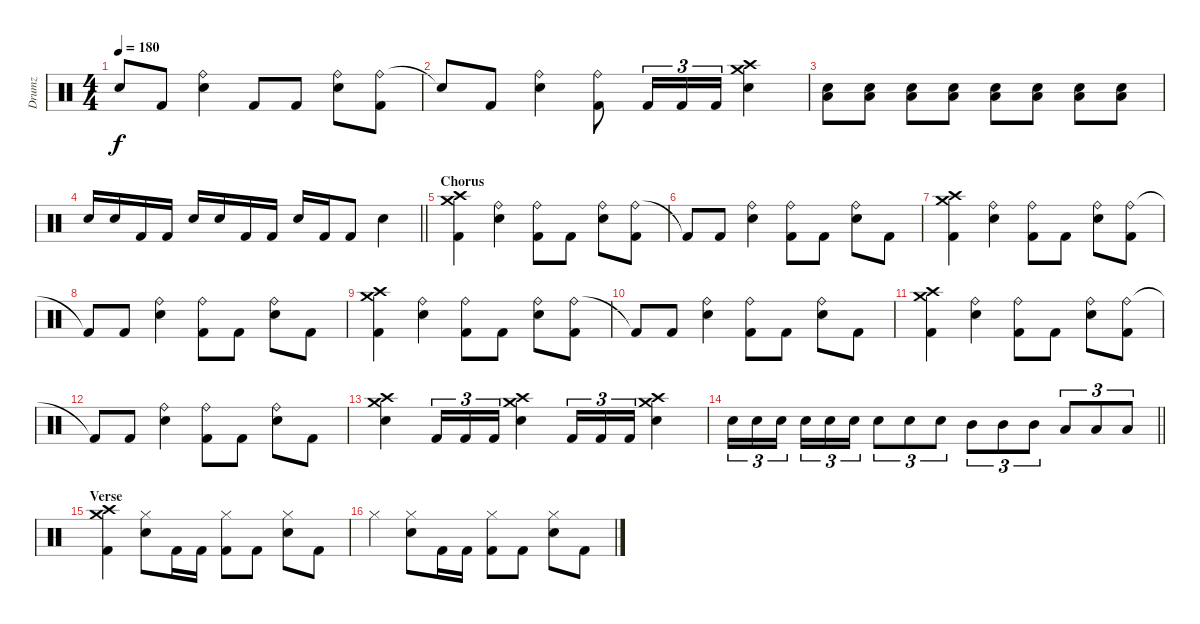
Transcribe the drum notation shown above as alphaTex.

\track ("Drumz" "Drumz") {instrument percussion}
\staff {score}
\articulation defaults
\ts (4 4)
\tempo 180
\clef neutral
\ks c "Snare (hit)"{t}.8{dy f} "Kick (hit) 2".8
("Ride (bell)" "Electric Snare (hit)").4 "Kick (hit) 2".8 "Kick (hit) 2".8 ("Ride (bell)" "Electric Snare (hit)").8 ("Ride (bell)" "Kick (hit) 2").8 |
"Snare (hit)"{t}.8 "Kick (hit) 2".8 ("Ride (bell)" "Electric Snare (hit)").4 ("Ride (bell)" "Kick (hit) 2").8 "Kick (hit) 2".16{tu (3 2)} "Kick (hit) 2".16{tu (3 2)} "Kick (hit) 2".16{tu (3 2)} ("Crash medium (hit)" "Crash high (hit)" "Electric Snare (hit)").4 |
("Low Tom (hit)" "Electric Snare (hit)").8 ("Low Tom (hit)" "Electric Snare (hit)").8 ("Low Tom (hit)" "Electric Snare (hit)").8 ("Low Tom (hit)" "Electric Snare (hit)").8 ("Low Tom (hit)" "Electric Snare (hit)").8 ("Low Tom (hit)" "Electric Snare (hit)").8 ("Low Tom (hit)" "Electric Snare (hit)").8 ("Low Tom (hit)" "Electric Snare (hit)").8 |
\barLineRight lightlight "Electric Snare (hit)".16 "Electric Snare (hit)".16 "Kick (hit) 2".16 "Kick (hit) 2".16 "Electric Snare (hit)".16 "Electric Snare (hit)".16 "Kick (hit) 2".16 "Kick (hit) 2".16 "Electric Snare (hit)".16 "Kick (hit) 2".16 "Kick (hit) 2".8 "Electric Snare (hit)".4
|
\section ("" "Chorus")
("Crash high (hit)" "Crash medium (hit)" "Kick (hit) 2").4 ("Ride (bell)" "Electric Snare (hit)").4 ("Ride (bell)" "Kick (hit) 2").8 "Kick (hit) 2".8 ("Ride (bell)" "Electric Snare (hit)").8 ("Ride (bell)" "Kick (hit) 2").8 |
"Kick (hit) 2"{t}.8 "Kick (hit) 2".8 ("Ride (bell)" "Electric Snare (hit)").4 ("Ride (bell)" "Kick (hit) 2").8 "Kick (hit) 2".8 ("Ride (bell)" "Electric Snare (hit)").8 "Kick (hit) 2".8 |
("Crash high (hit)" "Crash medium (hit)" "Kick (hit) 2").4 ("Ride (bell)" "Electric Snare (hit)").4 ("Ride (bell)" "Kick (hit) 2").8 "Kick (hit) 2".8 ("Ride (bell)" "Electric Snare (hit)").8 ("Ride (bell)" "Kick (hit) 2").8 |
"Kick (hit) 2"{t}.8 "Kick (hit) 2".8 ("Ride (bell)" "Electric Snare (hit)").4 ("Ride (bell)" "Kick (hit) 2").8 "Kick (hit) 2".8 ("Ride (bell)" "Electric Snare (hit)").8 "Kick (hit) 2".8 |
("Crash high (hit)" "Crash medium (hit)" "Kick (hit) 2").4 ("Ride (bell)" "Electric Snare (hit)").4 ("Ride (bell)" "Kick (hit) 2").8 "Kick (hit) 2".8 ("Ride (bell)" "Electric Snare (hit)").8 ("Ride (bell)" "Kick (hit) 2").8 |
"Kick (hit) 2"{t}.8 "Kick (hit) 2".8 ("Ride (bell)" "Electric Snare (hit)").4 ("Ride (bell)" "Kick (hit) 2").8 "Kick (hit) 2".8 ("Ride (bell)" "Electric Snare (hit)").8 "Kick (hit) 2".8 |
("Crash high (hit)" "Crash medium (hit)" "Kick (hit) 2").4 ("Ride (bell)" "Electric Snare (hit)").4 ("Ride (bell)" "Kick (hit) 2").8 "Kick (hit) 2".8 ("Ride (bell)" "Electric Snare (hit)").8 ("Ride (bell)" "Kick (hit) 2").8 |
"Kick (hit) 2"{t}.8 "Kick (hit) 2".8 ("Ride (bell)" "Electric Snare (hit)").4 ("Ride (bell)" "Kick (hit) 2").8 "Kick (hit) 2".8 ("Ride (bell)" "Electric Snare (hit)").8 "Kick (hit) 2".8 |
("Crash medium (hit)" "Crash high (hit)" "Electric Snare (hit)").4 "Kick (hit) 2".16{tu (3 2)} "Kick (hit) 2".16{tu (3 2)} "Kick (hit) 2".16{tu (3 2)} ("Crash medium (hit)" "Crash high (hit)" "Electric Snare (hit)").4 "Kick (hit) 2".16{tu (3 2)} "Kick (hit) 2".16{tu (3 2)} "Kick (hit) 2".16{tu (3 2)} ("Crash medium (hit)" "Crash high (hit)" "Electric Snare (hit)").4 |
\barLineRight lightlight "Electric Snare (hit)".16{tu (3 2)} "Electric Snare (hit)".16{tu (3 2)} "Electric Snare (hit)".16{tu (3 2) beam splitsecondary} "Electric Snare (hit)".16{tu (3 2)} "Electric Snare (hit)".16{tu (3 2)} "Electric Snare (hit)".16{tu (3 2)} "Electric Snare (hit)".8{tu (3 2)} "Electric Snare (hit)".8{tu (3 2)} "Electric Snare (hit)".8{tu (3 2)} "Mid Tom (hit)".8{tu (3 2)} "Mid Tom (hit)".8{tu (3 2)} "Mid Tom (hit)".8{tu (3 2)} "Low Tom (hit)".8{tu (3 2)} "Low Tom (hit)".8{tu (3 2)} "Low Tom (hit)".8{tu (3 2)}
|
\section ("" "Verse")
("Crash medium (hit)" "Crash high (hit)" "Kick (hit) 2").4 ("Hi-Hat (closed)" "Electric Snare (hit)").8 "Kick (hit) 2".16 "Kick (hit) 2".16 ("Hi-Hat (closed)" "Kick (hit) 2").8 "Kick (hit) 2".8 ("Hi-Hat (closed)" "Electric Snare (hit)").8 "Kick (hit) 2".8 |
"Hi-Hat (closed)".4 ("Hi-Hat (closed)" "Electric Snare (hit)").8 "Kick (hit) 2".16 "Kick (hit) 2".16 ("Hi-Hat (closed)" "Kick (hit) 2").8 "Kick (hit) 2".8 ("Hi-Hat (closed)" "Electric Snare (hit)").8 "Kick (hit) 2".8
